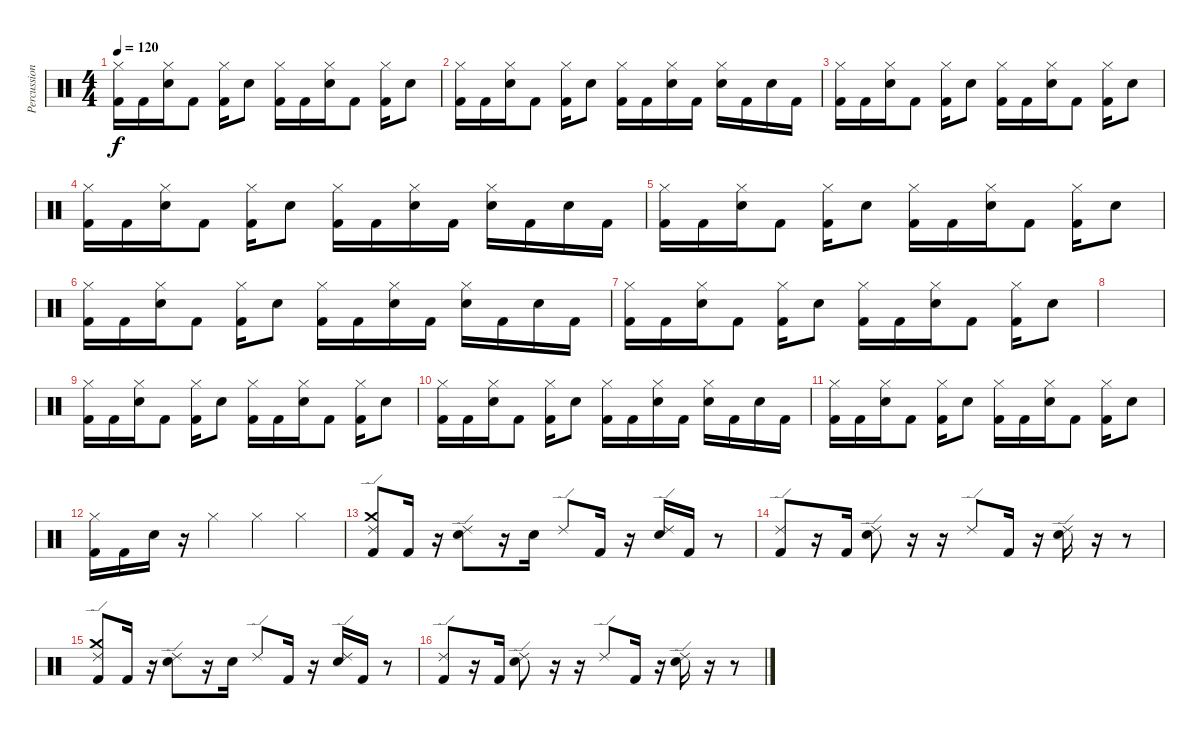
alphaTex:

\track ("Percussions" "Percussion") {instrument percussion}
\staff {score}
\articulation defaults
\ts (4 4)
\tempo 120
\clef neutral
\ks c
("Hi-Hat (closed)" "Kick (hit) 2").16{dy f} "Kick (hit) 2".16 ("Hi-Hat (closed)" "Electric Snare (hit)").16 "Kick (hit) 2".8 ("Hi-Hat (closed)" "Kick (hit) 2").16 "Electric Snare (hit)".8 ("Hi-Hat (closed)" "Kick (hit) 2").16 "Kick (hit) 2".16 ("Hi-Hat (closed)" "Electric Snare (hit)").16 "Kick (hit) 2".8 ("Hi-Hat (closed)" "Kick (hit) 2").16 "Electric Snare (hit)".8 |
("Hi-Hat (closed)" "Kick (hit) 2").16 "Kick (hit) 2".16 ("Hi-Hat (closed)" "Electric Snare (hit)").16 "Kick (hit) 2".8 ("Hi-Hat (closed)" "Kick (hit) 2").16 "Electric Snare (hit)".8 ("Hi-Hat (closed)" "Kick (hit) 2").16 "Kick (hit) 2".16 ("Hi-Hat (closed)" "Electric Snare (hit)").16 "Kick (hit) 2".16 ("Hi-Hat (closed)" "Electric Snare (hit)").16 "Kick (hit) 2".16 "Electric Snare (hit)".16 "Kick (hit) 2".16 |
("Hi-Hat (closed)" "Kick (hit) 2").16 "Kick (hit) 2".16 ("Hi-Hat (closed)" "Electric Snare (hit)").16 "Kick (hit) 2".8 ("Hi-Hat (closed)" "Kick (hit) 2").16 "Electric Snare (hit)".8 ("Hi-Hat (closed)" "Kick (hit) 2").16 "Kick (hit) 2".16 ("Hi-Hat (closed)" "Electric Snare (hit)").16 "Kick (hit) 2".8 ("Hi-Hat (closed)" "Kick (hit) 2").16 "Electric Snare (hit)".8 |
("Hi-Hat (closed)" "Kick (hit) 2").16 "Kick (hit) 2".16 ("Hi-Hat (closed)" "Electric Snare (hit)").16 "Kick (hit) 2".8 ("Hi-Hat (closed)" "Kick (hit) 2").16 "Electric Snare (hit)".8 ("Hi-Hat (closed)" "Kick (hit) 2").16 "Kick (hit) 2".16 ("Hi-Hat (closed)" "Electric Snare (hit)").16 "Kick (hit) 2".16 ("Hi-Hat (closed)" "Electric Snare (hit)").16 "Kick (hit) 2".16 "Electric Snare (hit)".16 "Kick (hit) 2".16 |
("Hi-Hat (closed)" "Kick (hit) 2").16 "Kick (hit) 2".16 ("Hi-Hat (closed)" "Electric Snare (hit)").16 "Kick (hit) 2".8 ("Hi-Hat (closed)" "Kick (hit) 2").16 "Electric Snare (hit)".8 ("Hi-Hat (closed)" "Kick (hit) 2").16 "Kick (hit) 2".16 ("Hi-Hat (closed)" "Electric Snare (hit)").16 "Kick (hit) 2".8 ("Hi-Hat (closed)" "Kick (hit) 2").16 "Electric Snare (hit)".8 |
("Hi-Hat (closed)" "Kick (hit) 2").16 "Kick (hit) 2".16 ("Hi-Hat (closed)" "Electric Snare (hit)").16 "Kick (hit) 2".8 ("Hi-Hat (closed)" "Kick (hit) 2").16 "Electric Snare (hit)".8 ("Hi-Hat (closed)" "Kick (hit) 2").16 "Kick (hit) 2".16 ("Hi-Hat (closed)" "Electric Snare (hit)").16 "Kick (hit) 2".16 ("Hi-Hat (closed)" "Electric Snare (hit)").16 "Kick (hit) 2".16 "Electric Snare (hit)".16 "Kick (hit) 2".16 |
("Hi-Hat (closed)" "Kick (hit) 2").16 "Kick (hit) 2".16 ("Hi-Hat (closed)" "Electric Snare (hit)").16 "Kick (hit) 2".8 ("Hi-Hat (closed)" "Kick (hit) 2").16 "Electric Snare (hit)".8 ("Hi-Hat (closed)" "Kick (hit) 2").16 "Kick (hit) 2".16 ("Hi-Hat (closed)" "Electric Snare (hit)").16 "Kick (hit) 2".8 ("Hi-Hat (closed)" "Kick (hit) 2").16 "Electric Snare (hit)".8 |
|
("Hi-Hat (closed)" "Kick (hit) 2").16 "Kick (hit) 2".16 ("Hi-Hat (closed)" "Electric Snare (hit)").16 "Kick (hit) 2".8 ("Hi-Hat (closed)" "Kick (hit) 2").16 "Electric Snare (hit)".8 ("Hi-Hat (closed)" "Kick (hit) 2").16 "Kick (hit) 2".16 ("Hi-Hat (closed)" "Electric Snare (hit)").16 "Kick (hit) 2".8 ("Hi-Hat (closed)" "Kick (hit) 2").16 "Electric Snare (hit)".8 |
("Hi-Hat (closed)" "Kick (hit) 2").16 "Kick (hit) 2".16 ("Hi-Hat (closed)" "Electric Snare (hit)").16 "Kick (hit) 2".8 ("Hi-Hat (closed)" "Kick (hit) 2").16 "Electric Snare (hit)".8 ("Hi-Hat (closed)" "Kick (hit) 2").16 "Kick (hit) 2".16 ("Hi-Hat (closed)" "Electric Snare (hit)").16 "Kick (hit) 2".16 ("Hi-Hat (closed)" "Electric Snare (hit)").16 "Kick (hit) 2".16 "Electric Snare (hit)".16 "Kick (hit) 2".16 |
("Hi-Hat (closed)" "Kick (hit) 2").16 "Kick (hit) 2".16 ("Hi-Hat (closed)" "Electric Snare (hit)").16 "Kick (hit) 2".8 ("Hi-Hat (closed)" "Kick (hit) 2").16 "Electric Snare (hit)".8 ("Hi-Hat (closed)" "Kick (hit) 2").16 "Kick (hit) 2".16 ("Hi-Hat (closed)" "Electric Snare (hit)").16 "Kick (hit) 2".8 ("Hi-Hat (closed)" "Kick (hit) 2").16 "Electric Snare (hit)".8 |
("Hi-Hat (closed)" "Kick (hit) 2").16 "Kick (hit) 2".16 "Electric Snare (hit)".16 r.16 "Hi-Hat (closed)".4 "Hi-Hat (closed)".4 "Hi-Hat (closed)".4 |
("Crash medium (hit)" "Ride (edge) 2" "Kick (hit) 2").8 "Kick (hit) 2".16 r.16 ("Ride (edge) 2" "Electric Snare (hit)").8 r.16 "Electric Snare (hit)".16 "Ride (edge) 2".8 "Kick (hit) 2".16 r.16 ("Ride (edge) 2" "Electric Snare (hit)").16 "Kick (hit) 2".16 r.8 |
("Ride (edge) 2" "Kick (hit) 2").8 r.16 "Kick (hit) 2".16 ("Ride (edge) 2" "Electric Snare (hit)").8 r.16 r.16 "Ride (edge) 2".8 "Kick (hit) 2".16 r.16 ("Ride (edge) 2" "Electric Snare (hit)").16 r.16 r.8 |
("Crash medium (hit)" "Ride (edge) 2" "Kick (hit) 2").8 "Kick (hit) 2".16 r.16 ("Ride (edge) 2" "Electric Snare (hit)").8 r.16 "Electric Snare (hit)".16 "Ride (edge) 2".8 "Kick (hit) 2".16 r.16 ("Ride (edge) 2" "Electric Snare (hit)").16 "Kick (hit) 2".16 r.8 |
("Ride (edge) 2" "Kick (hit) 2").8 r.16 "Kick (hit) 2".16 ("Ride (edge) 2" "Electric Snare (hit)").8 r.16 r.16 "Ride (edge) 2".8 "Kick (hit) 2".16 r.16 ("Ride (edge) 2" "Electric Snare (hit)").16 r.16 r.8
